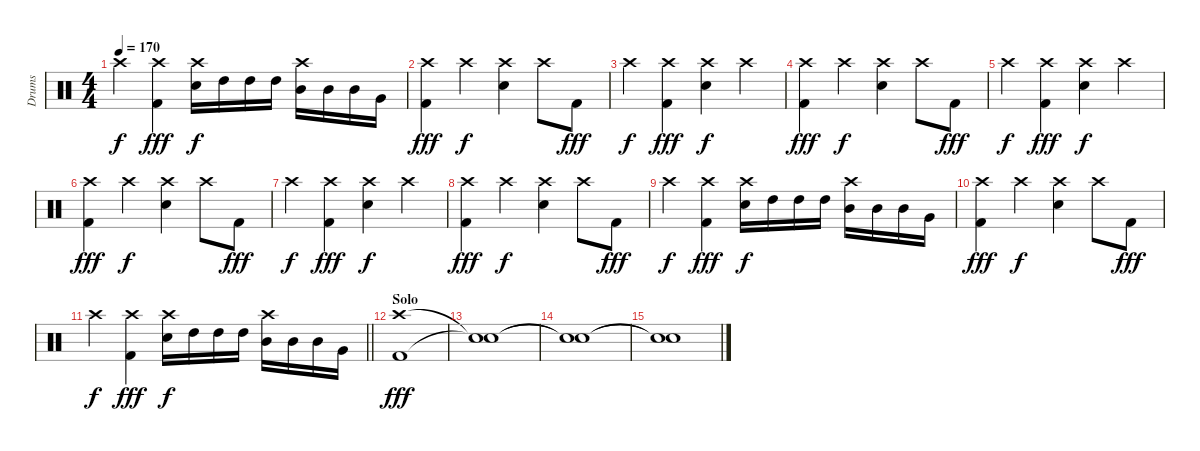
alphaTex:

\track ("Drums" "Drums") {instrument percussion}
\staff {score}
\articulation defaults
\ts (4 4)
\tempo 170
\clef neutral
\ks c "Crash high (hit)".4{dy f}
("Crash high (hit)" "Kick (hit) 2").4{dy fff} ("Crash high (hit)" "Electric Snare (hit)").16{dy f} "High Tom (hit)".16 "High Tom (hit)".16 "High Tom (hit)".16 ("Crash high (hit)" "Mid Tom (hit)").16 "Mid Tom (hit)".16 "Mid Tom (hit)".16 "Very Low Tom (hit)".16 |
("Crash high (hit)" "Kick (hit) 2").4{dy fff} "Crash high (hit)".4{dy f} ("Crash high (hit)" "Electric Snare (hit)").4 "Crash high (hit)".8 "Kick (hit) 2".8{dy fff} |
"Crash high (hit)".4{dy f} ("Crash high (hit)" "Kick (hit) 2").4{dy fff} ("Crash high (hit)" "Electric Snare (hit)").4{dy f} "Crash high (hit)".4 |
("Crash high (hit)" "Kick (hit) 2").4{dy fff} "Crash high (hit)".4{dy f} ("Crash high (hit)" "Electric Snare (hit)").4 "Crash high (hit)".8 "Kick (hit) 2".8{dy fff} |
"Crash high (hit)".4{dy f} ("Crash high (hit)" "Kick (hit) 2").4{dy fff} ("Crash high (hit)" "Electric Snare (hit)").4{dy f} "Crash high (hit)".4 |
("Crash high (hit)" "Kick (hit) 2").4{dy fff} "Crash high (hit)".4{dy f} ("Crash high (hit)" "Electric Snare (hit)").4 "Crash high (hit)".8 "Kick (hit) 2".8{dy fff} |
"Crash high (hit)".4{dy f} ("Crash high (hit)" "Kick (hit) 2").4{dy fff} ("Crash high (hit)" "Electric Snare (hit)").4{dy f} "Crash high (hit)".4 |
("Crash high (hit)" "Kick (hit) 2").4{dy fff} "Crash high (hit)".4{dy f} ("Crash high (hit)" "Electric Snare (hit)").4 "Crash high (hit)".8 "Kick (hit) 2".8{dy fff} |
"Crash high (hit)".4{dy f} ("Crash high (hit)" "Kick (hit) 2").4{dy fff} ("Crash high (hit)" "Electric Snare (hit)").16{dy f} "High Tom (hit)".16 "High Tom (hit)".16 "High Tom (hit)".16 ("Crash high (hit)" "Mid Tom (hit)").16 "Mid Tom (hit)".16 "Mid Tom (hit)".16 "Very Low Tom (hit)".16 |
("Crash high (hit)" "Kick (hit) 2").4{dy fff} "Crash high (hit)".4{dy f} ("Crash high (hit)" "Electric Snare (hit)").4 "Crash high (hit)".8 "Kick (hit) 2".8{dy fff} |
\barLineRight lightlight "Crash high (hit)".4{dy f}
("Crash high (hit)" "Kick (hit) 2").4{dy fff} ("Crash high (hit)" "Electric Snare (hit)").16{dy f} "High Tom (hit)".16 "High Tom (hit)".16 "High Tom (hit)".16 ("Crash high (hit)" "Mid Tom (hit)").16 "Mid Tom (hit)".16 "Mid Tom (hit)".16 "Very Low Tom (hit)".16 |
\section ("" "Solo")
("Crash high (hit)" "Kick (hit) 2").1{dy fff} |
("Snare (hit)"{t} "Snare (hit)"{t}).1 |
("Snare (hit)"{t} "Snare (hit)"{t}).1 |
("Snare (hit)"{t} "Snare (hit)"{t}).1
